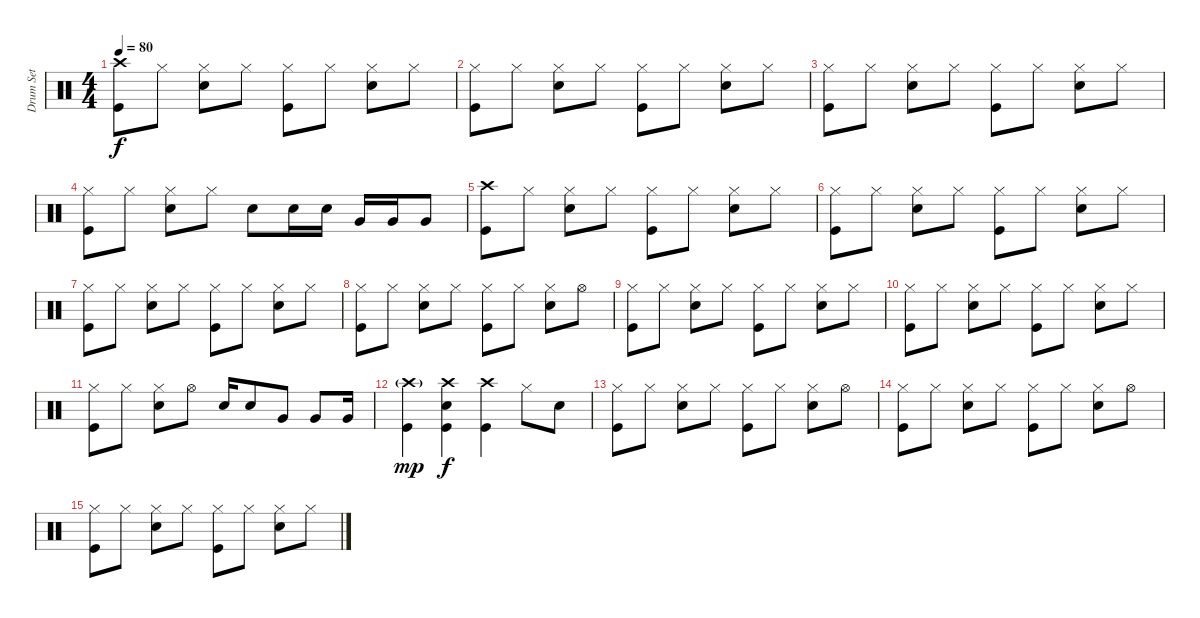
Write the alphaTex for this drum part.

\track ("Drum Set" "Drum Set") {instrument percussion}
\staff {score}
\articulation defaults
\ts (4 4)
\tempo 80
\clef neutral
\ks c
("Crash high (hit)" "Kick (hit)").8{dy f} "Hi-Hat (closed)".8 ("Hi-Hat (closed)" "Electric Snare (hit)").8 "Hi-Hat (closed)".8 ("Hi-Hat (closed)" "Kick (hit)").8 "Hi-Hat (closed)".8 ("Hi-Hat (closed)" "Electric Snare (hit)").8 "Hi-Hat (closed)".8 |
("Hi-Hat (closed)" "Kick (hit)").8 "Hi-Hat (closed)".8 ("Hi-Hat (closed)" "Electric Snare (hit)").8 "Hi-Hat (closed)".8 ("Hi-Hat (closed)" "Kick (hit)").8 "Hi-Hat (closed)".8 ("Hi-Hat (closed)" "Electric Snare (hit)").8 "Hi-Hat (closed)".8 |
("Hi-Hat (closed)" "Kick (hit)").8 "Hi-Hat (closed)".8 ("Hi-Hat (closed)" "Electric Snare (hit)").8 "Hi-Hat (closed)".8 ("Hi-Hat (closed)" "Kick (hit)").8 "Hi-Hat (closed)".8 ("Hi-Hat (closed)" "Electric Snare (hit)").8 "Hi-Hat (closed)".8 |
("Hi-Hat (closed)" "Kick (hit)").8 "Hi-Hat (closed)".8 ("Hi-Hat (closed)" "Electric Snare (hit)").8 "Hi-Hat (closed)".8 "Electric Snare (hit)".8 "Electric Snare (hit)".16 "Electric Snare (hit)".16 "Very Low Tom (hit)".16 "Very Low Tom (hit)".16 "Very Low Tom (hit)".8 |
("Crash high (hit)" "Kick (hit)").8 "Hi-Hat (closed)".8 ("Hi-Hat (closed)" "Electric Snare (hit)").8 "Hi-Hat (closed)".8 ("Hi-Hat (closed)" "Kick (hit)").8 "Hi-Hat (closed)".8 ("Hi-Hat (closed)" "Electric Snare (hit)").8 "Hi-Hat (closed)".8 |
("Hi-Hat (closed)" "Kick (hit)").8 "Hi-Hat (closed)".8 ("Hi-Hat (closed)" "Electric Snare (hit)").8 "Hi-Hat (closed)".8 ("Hi-Hat (closed)" "Kick (hit)").8 "Hi-Hat (closed)".8 ("Hi-Hat (closed)" "Electric Snare (hit)").8 "Hi-Hat (closed)".8 |
("Hi-Hat (closed)" "Kick (hit)").8 "Hi-Hat (closed)".8 ("Hi-Hat (closed)" "Electric Snare (hit)").8 "Hi-Hat (closed)".8 ("Hi-Hat (closed)" "Kick (hit)").8 "Hi-Hat (closed)".8 ("Hi-Hat (closed)" "Electric Snare (hit)").8 "Hi-Hat (closed)".8 |
("Hi-Hat (closed)" "Kick (hit)").8 "Hi-Hat (closed)".8 ("Hi-Hat (closed)" "Electric Snare (hit)").8 "Hi-Hat (closed)".8 ("Hi-Hat (closed)" "Kick (hit)").8 "Hi-Hat (closed)".8 ("Hi-Hat (closed)" "Electric Snare (hit)").8 "Hi-Hat (open)".8 |
("Hi-Hat (closed)" "Kick (hit)").8 "Hi-Hat (closed)".8 ("Hi-Hat (closed)" "Electric Snare (hit)").8 "Hi-Hat (closed)".8 ("Hi-Hat (closed)" "Kick (hit)").8 "Hi-Hat (closed)".8 ("Hi-Hat (closed)" "Electric Snare (hit)").8 "Hi-Hat (closed)".8 |
("Hi-Hat (closed)" "Kick (hit)").8 "Hi-Hat (closed)".8 ("Hi-Hat (closed)" "Electric Snare (hit)").8 "Hi-Hat (closed)".8 ("Hi-Hat (closed)" "Kick (hit)").8 "Hi-Hat (closed)".8 ("Hi-Hat (closed)" "Electric Snare (hit)").8 "Hi-Hat (closed)".8 |
("Hi-Hat (closed)" "Kick (hit)").8 "Hi-Hat (closed)".8 ("Hi-Hat (closed)" "Electric Snare (hit)").8 "Hi-Hat (open)".8 "Electric Snare (hit)".16 "Electric Snare (hit)".8 "Very Low Tom (hit)".8 "Very Low Tom (hit)".8 "Very Low Tom (hit)".16 |
("Crash high (hit)"{g} "Kick (hit)").4{dy mp} ("Crash high (hit)" "Electric Snare (hit)" "Kick (hit)").4{dy f} ("Crash high (hit)" "Kick (hit)").4 "Hi-Hat (closed)".8 "Electric Snare (hit)".8 |
("Hi-Hat (closed)" "Kick (hit)").8 "Hi-Hat (closed)".8 ("Hi-Hat (closed)" "Electric Snare (hit)").8 "Hi-Hat (closed)".8 ("Hi-Hat (closed)" "Kick (hit)").8 "Hi-Hat (closed)".8 ("Hi-Hat (closed)" "Electric Snare (hit)").8 "Hi-Hat (open)".8 |
("Hi-Hat (closed)" "Kick (hit)").8 "Hi-Hat (closed)".8 ("Hi-Hat (closed)" "Electric Snare (hit)").8 "Hi-Hat (closed)".8 ("Hi-Hat (closed)" "Kick (hit)").8 "Hi-Hat (closed)".8 ("Hi-Hat (closed)" "Electric Snare (hit)").8 "Hi-Hat (open)".8 |
("Hi-Hat (closed)" "Kick (hit)").8 "Hi-Hat (closed)".8 ("Hi-Hat (closed)" "Electric Snare (hit)").8 "Hi-Hat (closed)".8 ("Hi-Hat (closed)" "Kick (hit)").8 "Hi-Hat (closed)".8 ("Hi-Hat (closed)" "Electric Snare (hit)").8 "Hi-Hat (closed)".8
